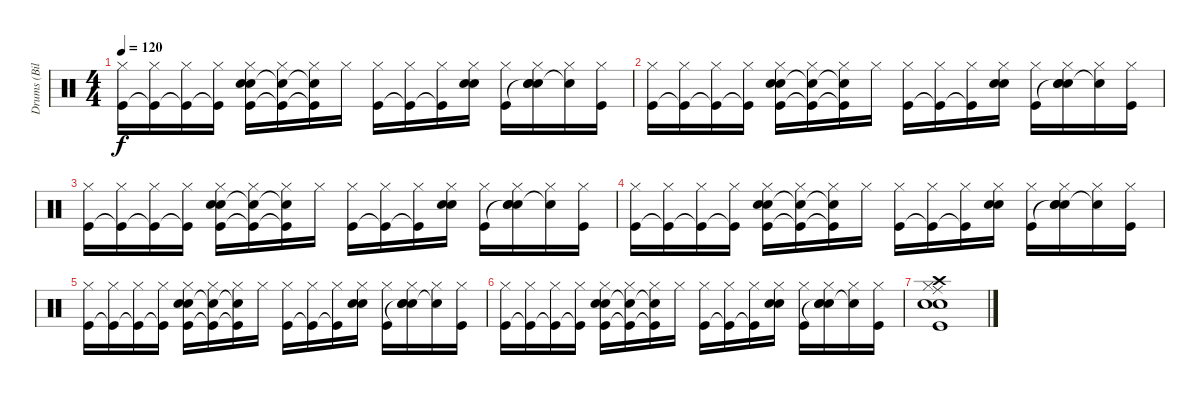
\track ("Drums (Bilerman)" "Drums (Bil") {instrument percussion}
\staff {score}
\articulation defaults
\ts (4 4)
\tempo 120
\clef neutral
\ks c
("Kick (hit)" "Hi-Hat (closed)").16{dy f} ("Kick (hit)"{t} "Hi-Hat (closed)").16 ("Kick (hit)"{t} "Hi-Hat (closed)").16 ("Kick (hit)"{t} "Hi-Hat (closed)").16 ("Kick (hit)" "Snare (hit) 2" "Snare (hit) 2" "Hi-Hat (closed)").16 ("Kick (hit)"{t} "Snare (hit) 2"{t} "Hi-Hat (closed)").16 ("Kick (hit)"{t} "Snare (hit) 2"{t} "Hi-Hat (closed)").16 "Hi-Hat (closed)".16 ("Kick (hit)" "Hi-Hat (closed)").16 ("Kick (hit)"{t} "Hi-Hat (closed)").16 ("Kick (hit)"{t} "Hi-Hat (closed)").16 ("Snare (hit) 2" "Snare (hit) 2" "Hi-Hat (closed)").16 ("Kick (hit)" "Hi-Hat (closed)").16 ("Snare (hit)"{t} "Snare (hit) 2" "Snare (hit) 2" "Hi-Hat (closed)").16 ("Snare (hit) 2"{t} "Hi-Hat (closed)").16 ("Kick (hit)" "Hi-Hat (closed)").16 |
("Kick (hit)" "Hi-Hat (closed)").16 ("Kick (hit)"{t} "Hi-Hat (closed)").16 ("Kick (hit)"{t} "Hi-Hat (closed)").16 ("Kick (hit)"{t} "Hi-Hat (closed)").16 ("Kick (hit)" "Snare (hit) 2" "Snare (hit) 2" "Hi-Hat (closed)").16 ("Kick (hit)"{t} "Snare (hit) 2"{t} "Hi-Hat (closed)").16 ("Kick (hit)"{t} "Snare (hit) 2"{t} "Hi-Hat (closed)").16 "Hi-Hat (closed)".16 ("Kick (hit)" "Hi-Hat (closed)").16 ("Kick (hit)"{t} "Hi-Hat (closed)").16 ("Kick (hit)"{t} "Hi-Hat (closed)").16 ("Snare (hit) 2" "Snare (hit) 2" "Hi-Hat (closed)").16 ("Kick (hit)" "Hi-Hat (closed)").16 ("Snare (hit)"{t} "Snare (hit) 2" "Snare (hit) 2" "Hi-Hat (closed)").16 ("Snare (hit) 2"{t} "Hi-Hat (closed)").16 ("Kick (hit)" "Hi-Hat (closed)").16 |
("Kick (hit)" "Hi-Hat (closed)").16 ("Kick (hit)"{t} "Hi-Hat (closed)").16 ("Kick (hit)"{t} "Hi-Hat (closed)").16 ("Kick (hit)"{t} "Hi-Hat (closed)").16 ("Kick (hit)" "Snare (hit) 2" "Snare (hit) 2" "Hi-Hat (closed)").16 ("Kick (hit)"{t} "Snare (hit) 2"{t} "Hi-Hat (closed)").16 ("Kick (hit)"{t} "Snare (hit) 2"{t} "Hi-Hat (closed)").16 "Hi-Hat (closed)".16 ("Kick (hit)" "Hi-Hat (closed)").16 ("Kick (hit)"{t} "Hi-Hat (closed)").16 ("Kick (hit)"{t} "Hi-Hat (closed)").16 ("Snare (hit) 2" "Snare (hit) 2" "Hi-Hat (closed)").16 ("Kick (hit)" "Hi-Hat (closed)").16 ("Snare (hit)"{t} "Snare (hit) 2" "Snare (hit) 2" "Hi-Hat (closed)").16 ("Snare (hit) 2"{t} "Hi-Hat (closed)").16 ("Kick (hit)" "Hi-Hat (closed)").16 |
("Kick (hit)" "Hi-Hat (closed)").16 ("Kick (hit)"{t} "Hi-Hat (closed)").16 ("Kick (hit)"{t} "Hi-Hat (closed)").16 ("Kick (hit)"{t} "Hi-Hat (closed)").16 ("Kick (hit)" "Snare (hit) 2" "Snare (hit) 2" "Hi-Hat (closed)").16 ("Kick (hit)"{t} "Snare (hit) 2"{t} "Hi-Hat (closed)").16 ("Kick (hit)"{t} "Snare (hit) 2"{t} "Hi-Hat (closed)").16 "Hi-Hat (closed)".16 ("Kick (hit)" "Hi-Hat (closed)").16 ("Kick (hit)"{t} "Hi-Hat (closed)").16 ("Kick (hit)"{t} "Hi-Hat (closed)").16 ("Snare (hit) 2" "Snare (hit) 2" "Hi-Hat (closed)").16 ("Kick (hit)" "Hi-Hat (closed)").16 ("Snare (hit)"{t} "Snare (hit) 2" "Snare (hit) 2" "Hi-Hat (closed)").16 ("Snare (hit) 2"{t} "Hi-Hat (closed)").16 ("Kick (hit)" "Hi-Hat (closed)").16 |
("Kick (hit)" "Hi-Hat (closed)").16 ("Kick (hit)"{t} "Hi-Hat (closed)").16 ("Kick (hit)"{t} "Hi-Hat (closed)").16 ("Kick (hit)"{t} "Hi-Hat (closed)").16 ("Kick (hit)" "Snare (hit) 2" "Snare (hit) 2" "Hi-Hat (closed)").16 ("Kick (hit)"{t} "Snare (hit) 2"{t} "Hi-Hat (closed)").16 ("Kick (hit)"{t} "Snare (hit) 2"{t} "Hi-Hat (closed)").16 "Hi-Hat (closed)".16 ("Kick (hit)" "Hi-Hat (closed)").16 ("Kick (hit)"{t} "Hi-Hat (closed)").16 ("Kick (hit)"{t} "Hi-Hat (closed)").16 ("Snare (hit) 2" "Snare (hit) 2" "Hi-Hat (closed)").16 ("Kick (hit)" "Hi-Hat (closed)").16 ("Snare (hit)"{t} "Snare (hit) 2" "Snare (hit) 2" "Hi-Hat (closed)").16 ("Snare (hit) 2"{t} "Hi-Hat (closed)").16 ("Kick (hit)" "Hi-Hat (closed)").16 |
("Kick (hit)" "Hi-Hat (closed)").16 ("Kick (hit)"{t} "Hi-Hat (closed)").16 ("Kick (hit)"{t} "Hi-Hat (closed)").16 ("Kick (hit)"{t} "Hi-Hat (closed)").16 ("Kick (hit)" "Snare (hit) 2" "Snare (hit) 2" "Hi-Hat (closed)").16 ("Kick (hit)"{t} "Snare (hit) 2"{t} "Hi-Hat (closed)").16 ("Kick (hit)"{t} "Snare (hit) 2"{t} "Hi-Hat (closed)").16 "Hi-Hat (closed)".16 ("Kick (hit)" "Hi-Hat (closed)").16 ("Kick (hit)"{t} "Hi-Hat (closed)").16 ("Kick (hit)"{t} "Hi-Hat (closed)").16 ("Snare (hit) 2" "Snare (hit) 2" "Hi-Hat (closed)").16 ("Kick (hit)" "Hi-Hat (closed)").16 ("Snare (hit)"{t} "Snare (hit) 2" "Snare (hit) 2" "Hi-Hat (closed)").16 ("Snare (hit) 2"{t} "Hi-Hat (closed)").16 ("Kick (hit)" "Hi-Hat (closed)").16 |
("Ride (middle)" "Crash high (hit)" "Snare (hit) 2" "Snare (hit) 2" "Hi-Hat (closed)" "Kick (hit)").1
